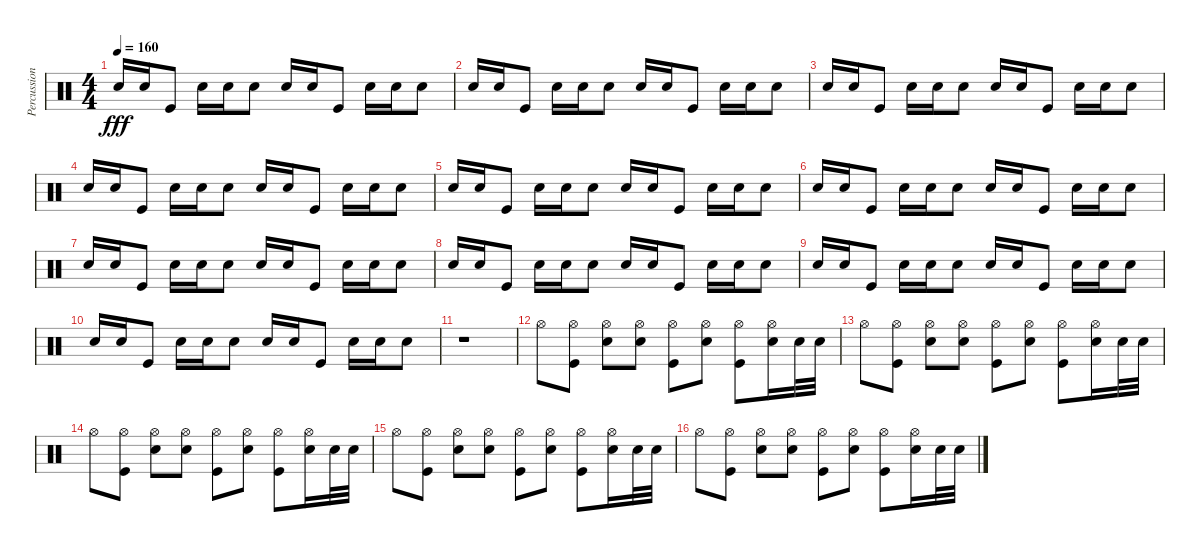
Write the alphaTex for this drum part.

\track ("Percussion" "Percussion") {instrument percussion}
\staff {score}
\articulation defaults
\ts (4 4)
\tempo 160
\clef neutral
\ks c "Snare (hit) 2".16{dy fff} "Snare (hit) 2".16 "Kick (hit)".8 "Snare (hit) 2".16 "Snare (hit) 2".16 "Snare (hit) 2".8 "Snare (hit) 2".16 "Snare (hit) 2".16 "Kick (hit)".8 "Snare (hit) 2".16 "Snare (hit) 2".16 "Snare (hit) 2".8
|
"Snare (hit) 2".16 "Snare (hit) 2".16 "Kick (hit)".8 "Snare (hit) 2".16 "Snare (hit) 2".16 "Snare (hit) 2".8 "Snare (hit) 2".16 "Snare (hit) 2".16 "Kick (hit)".8 "Snare (hit) 2".16 "Snare (hit) 2".16 "Snare (hit) 2".8 |
"Snare (hit) 2".16 "Snare (hit) 2".16 "Kick (hit)".8 "Snare (hit) 2".16 "Snare (hit) 2".16 "Snare (hit) 2".8 "Snare (hit) 2".16 "Snare (hit) 2".16 "Kick (hit)".8 "Snare (hit) 2".16 "Snare (hit) 2".16 "Snare (hit) 2".8 |
"Snare (hit) 2".16 "Snare (hit) 2".16 "Kick (hit)".8 "Snare (hit) 2".16 "Snare (hit) 2".16 "Snare (hit) 2".8 "Snare (hit) 2".16 "Snare (hit) 2".16 "Kick (hit)".8 "Snare (hit) 2".16 "Snare (hit) 2".16 "Snare (hit) 2".8 |
"Snare (hit) 2".16 "Snare (hit) 2".16 "Kick (hit)".8 "Snare (hit) 2".16 "Snare (hit) 2".16 "Snare (hit) 2".8 "Snare (hit) 2".16 "Snare (hit) 2".16 "Kick (hit)".8 "Snare (hit) 2".16 "Snare (hit) 2".16 "Snare (hit) 2".8 |
"Snare (hit) 2".16 "Snare (hit) 2".16 "Kick (hit)".8 "Snare (hit) 2".16 "Snare (hit) 2".16 "Snare (hit) 2".8 "Snare (hit) 2".16 "Snare (hit) 2".16 "Kick (hit)".8 "Snare (hit) 2".16 "Snare (hit) 2".16 "Snare (hit) 2".8 |
"Snare (hit) 2".16 "Snare (hit) 2".16 "Kick (hit)".8 "Snare (hit) 2".16 "Snare (hit) 2".16 "Snare (hit) 2".8 "Snare (hit) 2".16 "Snare (hit) 2".16 "Kick (hit)".8 "Snare (hit) 2".16 "Snare (hit) 2".16 "Snare (hit) 2".8 |
"Snare (hit) 2".16 "Snare (hit) 2".16 "Kick (hit)".8 "Snare (hit) 2".16 "Snare (hit) 2".16 "Snare (hit) 2".8 "Snare (hit) 2".16 "Snare (hit) 2".16 "Kick (hit)".8 "Snare (hit) 2".16 "Snare (hit) 2".16 "Snare (hit) 2".8 |
"Snare (hit) 2".16 "Snare (hit) 2".16 "Kick (hit)".8 "Snare (hit) 2".16 "Snare (hit) 2".16 "Snare (hit) 2".8 "Snare (hit) 2".16 "Snare (hit) 2".16 "Kick (hit)".8 "Snare (hit) 2".16 "Snare (hit) 2".16 "Snare (hit) 2".8 |
"Snare (hit) 2".16 "Snare (hit) 2".16 "Kick (hit)".8 "Snare (hit) 2".16 "Snare (hit) 2".16 "Snare (hit) 2".8 "Snare (hit) 2".16 "Snare (hit) 2".16 "Kick (hit)".8 "Snare (hit) 2".16 "Snare (hit) 2".16 "Snare (hit) 2".8 |
r.1 |
"Hi-Hat (open)".8 ("Kick (hit)" "Hi-Hat (open)").8 ("Snare (hit) 2" "Hi-Hat (open)").8 ("Snare (hit) 2" "Hi-Hat (open)").8 ("Kick (hit)" "Hi-Hat (open)").8 ("Snare (hit) 2" "Hi-Hat (open)").8 ("Kick (hit)" "Hi-Hat (open)").8 ("Snare (hit) 2" "Hi-Hat (open)").16 "Snare (hit) 2".32 "Snare (hit) 2".32 |
"Hi-Hat (open)".8 ("Kick (hit)" "Hi-Hat (open)").8 ("Snare (hit) 2" "Hi-Hat (open)").8 ("Snare (hit) 2" "Hi-Hat (open)").8 ("Kick (hit)" "Hi-Hat (open)").8 ("Snare (hit) 2" "Hi-Hat (open)").8 ("Kick (hit)" "Hi-Hat (open)").8 ("Snare (hit) 2" "Hi-Hat (open)").16 "Snare (hit) 2".32 "Snare (hit) 2".32 |
"Hi-Hat (open)".8 ("Kick (hit)" "Hi-Hat (open)").8 ("Snare (hit) 2" "Hi-Hat (open)").8 ("Snare (hit) 2" "Hi-Hat (open)").8 ("Kick (hit)" "Hi-Hat (open)").8 ("Snare (hit) 2" "Hi-Hat (open)").8 ("Kick (hit)" "Hi-Hat (open)").8 ("Snare (hit) 2" "Hi-Hat (open)").16 "Snare (hit) 2".32 "Snare (hit) 2".32 |
"Hi-Hat (open)".8 ("Kick (hit)" "Hi-Hat (open)").8 ("Snare (hit) 2" "Hi-Hat (open)").8 ("Snare (hit) 2" "Hi-Hat (open)").8 ("Kick (hit)" "Hi-Hat (open)").8 ("Snare (hit) 2" "Hi-Hat (open)").8 ("Kick (hit)" "Hi-Hat (open)").8 ("Snare (hit) 2" "Hi-Hat (open)").16 "Snare (hit) 2".32 "Snare (hit) 2".32 |
"Hi-Hat (open)".8 ("Kick (hit)" "Hi-Hat (open)").8 ("Snare (hit) 2" "Hi-Hat (open)").8 ("Snare (hit) 2" "Hi-Hat (open)").8 ("Kick (hit)" "Hi-Hat (open)").8 ("Snare (hit) 2" "Hi-Hat (open)").8 ("Kick (hit)" "Hi-Hat (open)").8 ("Snare (hit) 2" "Hi-Hat (open)").16 "Snare (hit) 2".32 "Snare (hit) 2".32
